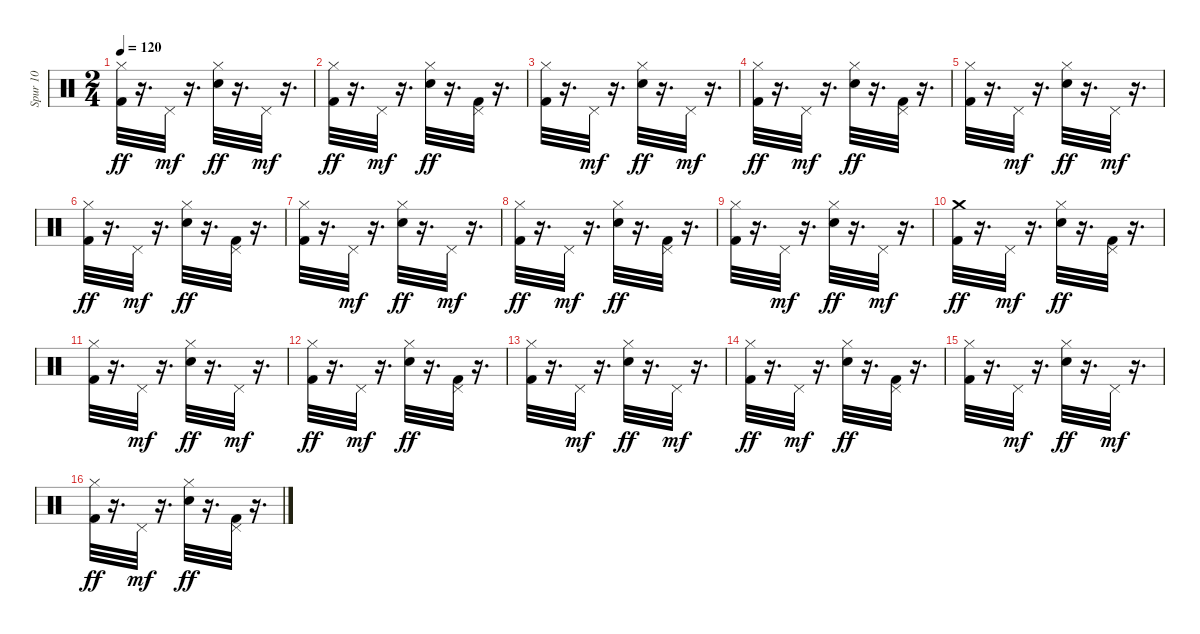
\track ("Spur 10" "Spur 10") {instrument percussion}
\staff {score}
\articulation defaults
\ts (2 4)
\tempo 120
\clef neutral
\ks c
("Hi-Hat (closed)" "Kick (hit) 2").32{dy ff} r.16{d} "Pedal Hi-Hat (hit)".32{dy mf} r.16{d} ("Hi-Hat (closed)" "Snare (hit) 2").32{dy ff} r.16{d} "Pedal Hi-Hat (hit)".32{dy mf} r.16{d} |
("Hi-Hat (closed)" "Kick (hit) 2").32{dy ff} r.16{d} "Pedal Hi-Hat (hit)".32{dy mf} r.16{d} ("Hi-Hat (closed)" "Snare (hit) 2").32{dy ff} r.16{d} ("Pedal Hi-Hat (hit)" "Kick (hit) 2").32 r.16{d} |
("Hi-Hat (closed)" "Kick (hit) 2").32 r.16{d} "Pedal Hi-Hat (hit)".32{dy mf} r.16{d} ("Hi-Hat (closed)" "Snare (hit) 2").32{dy ff} r.16{d} "Pedal Hi-Hat (hit)".32{dy mf} r.16{d} |
("Hi-Hat (closed)" "Kick (hit) 2").32{dy ff} r.16{d} "Pedal Hi-Hat (hit)".32{dy mf} r.16{d} ("Hi-Hat (closed)" "Snare (hit) 2").32{dy ff} r.16{d} ("Pedal Hi-Hat (hit)" "Kick (hit) 2").32 r.16{d} |
("Hi-Hat (closed)" "Kick (hit) 2").32 r.16{d} "Pedal Hi-Hat (hit)".32{dy mf} r.16{d} ("Hi-Hat (closed)" "Snare (hit) 2").32{dy ff} r.16{d} "Pedal Hi-Hat (hit)".32{dy mf} r.16{d} |
("Hi-Hat (closed)" "Kick (hit) 2").32{dy ff} r.16{d} "Pedal Hi-Hat (hit)".32{dy mf} r.16{d} ("Hi-Hat (closed)" "Snare (hit) 2").32{dy ff} r.16{d} ("Pedal Hi-Hat (hit)" "Kick (hit) 2").32 r.16{d} |
("Hi-Hat (closed)" "Kick (hit) 2").32 r.16{d} "Pedal Hi-Hat (hit)".32{dy mf} r.16{d} ("Hi-Hat (closed)" "Snare (hit) 2").32{dy ff} r.16{d} "Pedal Hi-Hat (hit)".32{dy mf} r.16{d} |
("Hi-Hat (closed)" "Kick (hit) 2").32{dy ff} r.16{d} "Pedal Hi-Hat (hit)".32{dy mf} r.16{d} ("Hi-Hat (closed)" "Snare (hit) 2").32{dy ff} r.16{d} ("Pedal Hi-Hat (hit)" "Kick (hit) 2").32 r.16{d} |
("Hi-Hat (closed)" "Kick (hit) 2").32 r.16{d} "Pedal Hi-Hat (hit)".32{dy mf} r.16{d} ("Hi-Hat (closed)" "Snare (hit) 2").32{dy ff} r.16{d} "Pedal Hi-Hat (hit)".32{dy mf} r.16{d} |
("Crash medium (hit)" "Kick (hit) 2").32{dy ff} r.16{d} "Pedal Hi-Hat (hit)".32{dy mf} r.16{d} ("Hi-Hat (closed)" "Snare (hit) 2").32{dy ff} r.16{d} ("Pedal Hi-Hat (hit)" "Kick (hit) 2").32 r.16{d} |
("Hi-Hat (closed)" "Kick (hit) 2").32 r.16{d} "Pedal Hi-Hat (hit)".32{dy mf} r.16{d} ("Hi-Hat (closed)" "Snare (hit) 2").32{dy ff} r.16{d} "Pedal Hi-Hat (hit)".32{dy mf} r.16{d} |
("Hi-Hat (closed)" "Kick (hit) 2").32{dy ff} r.16{d} "Pedal Hi-Hat (hit)".32{dy mf} r.16{d} ("Hi-Hat (closed)" "Snare (hit) 2").32{dy ff} r.16{d} ("Pedal Hi-Hat (hit)" "Kick (hit) 2").32 r.16{d} |
("Hi-Hat (closed)" "Kick (hit) 2").32 r.16{d} "Pedal Hi-Hat (hit)".32{dy mf} r.16{d} ("Hi-Hat (closed)" "Snare (hit) 2").32{dy ff} r.16{d} "Pedal Hi-Hat (hit)".32{dy mf} r.16{d} |
("Hi-Hat (closed)" "Kick (hit) 2").32{dy ff} r.16{d} "Pedal Hi-Hat (hit)".32{dy mf} r.16{d} ("Hi-Hat (closed)" "Snare (hit) 2").32{dy ff} r.16{d} ("Pedal Hi-Hat (hit)" "Kick (hit) 2").32 r.16{d} |
("Hi-Hat (closed)" "Kick (hit) 2").32 r.16{d} "Pedal Hi-Hat (hit)".32{dy mf} r.16{d} ("Hi-Hat (closed)" "Snare (hit) 2").32{dy ff} r.16{d} "Pedal Hi-Hat (hit)".32{dy mf} r.16{d} |
("Hi-Hat (closed)" "Kick (hit) 2").32{dy ff} r.16{d} "Pedal Hi-Hat (hit)".32{dy mf} r.16{d} ("Hi-Hat (closed)" "Snare (hit) 2").32{dy ff} r.16{d} ("Pedal Hi-Hat (hit)" "Kick (hit) 2").32 r.16{d}
